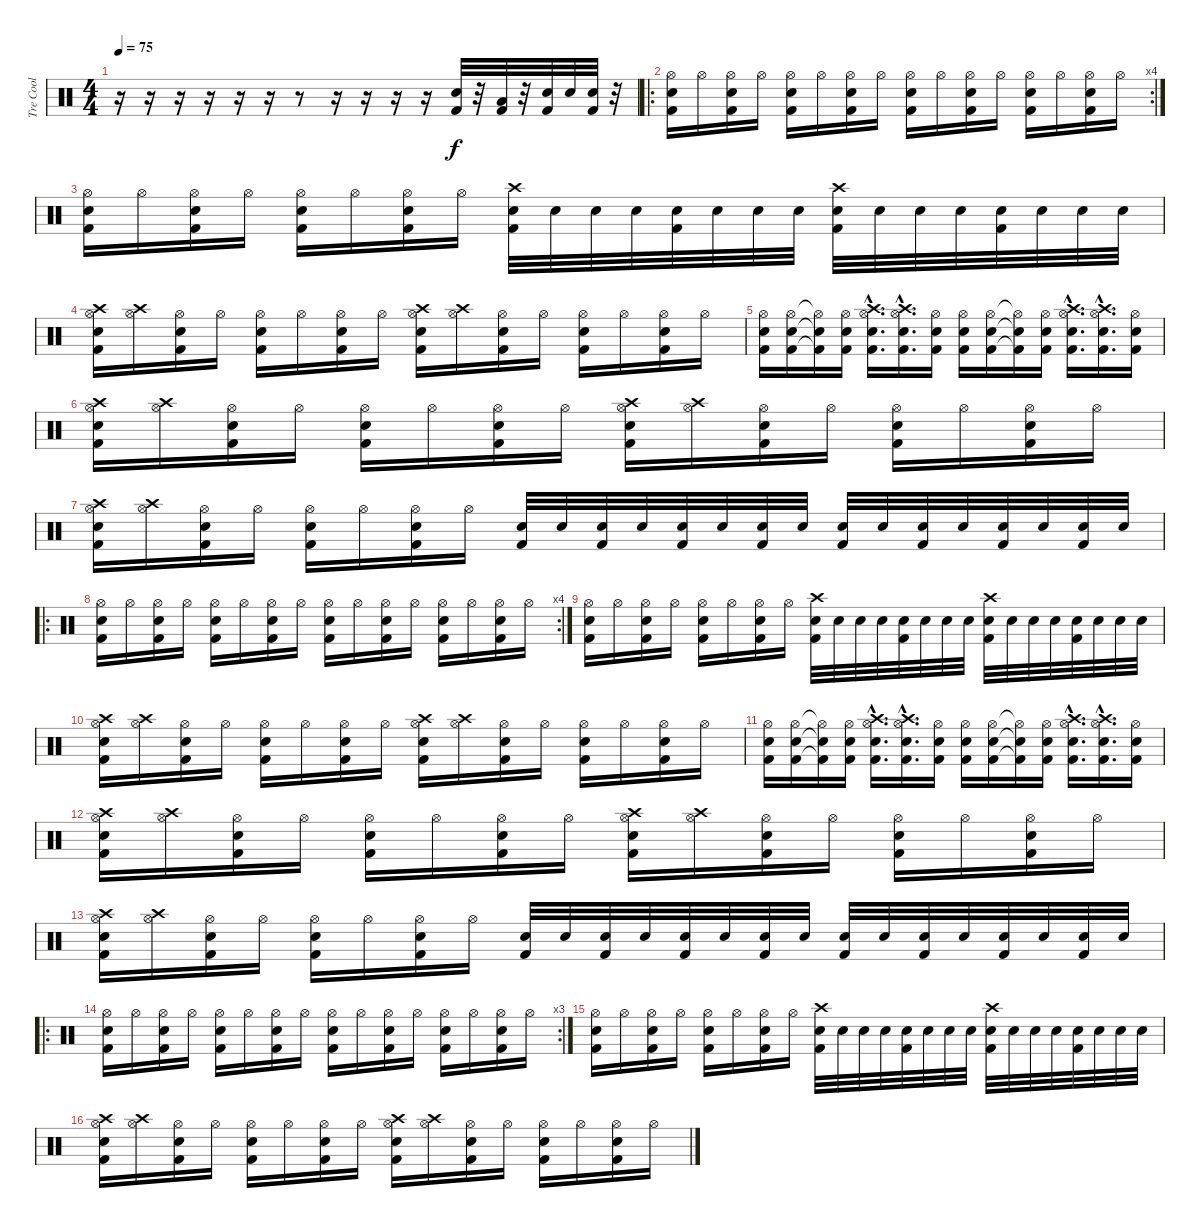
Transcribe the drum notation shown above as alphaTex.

\track ("Tre Cool" "Tre Cool") {instrument percussion}
\staff {score}
\articulation defaults
\ts (4 4)
\tempo 75
\clef neutral
\ks c
r.16{dy f} r.16 r.16 r.16 r.16 r.16 r.8 r.16 r.16 r.16 r.16 ("Snare (hit) 2" "Kick (hit) 2").32 r.32 ("Low Floor Tom (hit)" "Kick (hit) 2").32 r.32 ("Snare (hit) 2" "Kick (hit) 2").32 "Snare (hit) 2".32 ("Snare (hit) 2" "Kick (hit) 2").32 r.32 |
\ro
\rc 4
("Hi-Hat (open)" "Snare (hit) 2" "Kick (hit) 2").16 "Hi-Hat (open)".16 ("Hi-Hat (open)" "Snare (hit) 2" "Kick (hit) 2").16 "Hi-Hat (open)".16 ("Hi-Hat (open)" "Snare (hit) 2" "Kick (hit) 2").16 "Hi-Hat (open)".16 ("Hi-Hat (open)" "Snare (hit) 2" "Kick (hit) 2").16 "Hi-Hat (open)".16 ("Hi-Hat (open)" "Snare (hit) 2" "Kick (hit) 2").16 "Hi-Hat (open)".16 ("Hi-Hat (open)" "Snare (hit) 2" "Kick (hit) 2").16 "Hi-Hat (open)".16 ("Hi-Hat (open)" "Snare (hit) 2" "Kick (hit) 2").16 "Hi-Hat (open)".16 ("Hi-Hat (open)" "Snare (hit) 2" "Kick (hit) 2").16 "Hi-Hat (open)".16 |
("Hi-Hat (open)" "Snare (hit) 2" "Kick (hit) 2").16 "Hi-Hat (open)".16 ("Hi-Hat (open)" "Snare (hit) 2" "Kick (hit) 2").16 "Hi-Hat (open)".16 ("Hi-Hat (open)" "Snare (hit) 2" "Kick (hit) 2").16 "Hi-Hat (open)".16 ("Hi-Hat (open)" "Snare (hit) 2" "Kick (hit) 2").16 "Hi-Hat (open)".16 ("Crash high (hit)" "Snare (hit) 2" "Kick (hit) 2").32 "Snare (hit) 2".32 "Snare (hit) 2".32 "Snare (hit) 2".32 ("Snare (hit) 2" "Kick (hit) 2").32 "Snare (hit) 2".32 "Snare (hit) 2".32 "Snare (hit) 2".32 ("Crash high (hit)" "Snare (hit) 2" "Kick (hit) 2").32 "Snare (hit) 2".32 "Snare (hit) 2".32 "Snare (hit) 2".32 ("Snare (hit) 2" "Kick (hit) 2").32 "Snare (hit) 2".32 "Snare (hit) 2".32 "Snare (hit) 2".32 |
("Crash high (hit)" "Hi-Hat (open)" "Snare (hit) 2" "Kick (hit) 2").16 ("Crash high (hit)" "Hi-Hat (open)").16 ("Hi-Hat (open)" "Snare (hit) 2" "Kick (hit) 2").16 "Hi-Hat (open)".16 ("Hi-Hat (open)" "Snare (hit) 2" "Kick (hit) 2").16 "Hi-Hat (open)".16 ("Hi-Hat (open)" "Snare (hit) 2" "Kick (hit) 2").16 "Hi-Hat (open)".16 ("Crash high (hit)" "Hi-Hat (open)" "Snare (hit) 2" "Kick (hit) 2").16 ("Crash high (hit)" "Hi-Hat (open)").16 ("Hi-Hat (open)" "Snare (hit) 2" "Kick (hit) 2").16 "Hi-Hat (open)".16 ("Hi-Hat (open)" "Snare (hit) 2" "Kick (hit) 2").16 "Hi-Hat (open)".16 ("Hi-Hat (open)" "Snare (hit) 2" "Kick (hit) 2").16 "Hi-Hat (open)".16 |
("Hi-Hat (open)" "Snare (hit) 2" "Kick (hit) 2").16 ("Hi-Hat (open)" "Snare (hit) 2" "Kick (hit) 2").16 ("Hi-Hat (open)"{t} "Snare (hit) 2"{t} "Kick (hit) 2"{t}).16 ("Hi-Hat (open)" "Snare (hit) 2" "Kick (hit) 2").16 ("Crash high (hit)"{hac} "Hi-Hat (open)"{hac} "Snare (hit) 2"{hac} "Kick (hit) 2"{hac}).16{d} ("Crash high (hit)"{hac} "Hi-Hat (open)"{hac} "Snare (hit) 2"{hac} "Kick (hit) 2"{hac}).16{d} ("Hi-Hat (open)" "Snare (hit) 2" "Kick (hit) 2").16 ("Hi-Hat (open)" "Snare (hit) 2" "Kick (hit) 2").16 ("Hi-Hat (open)" "Snare (hit) 2" "Kick (hit) 2").16 ("Hi-Hat (open)"{t} "Snare (hit) 2"{t} "Kick (hit) 2"{t}).16 ("Hi-Hat (open)" "Snare (hit) 2" "Kick (hit) 2").16 ("Crash high (hit)"{hac} "Hi-Hat (open)"{hac} "Snare (hit) 2"{hac} "Kick (hit) 2"{hac}).16{d} ("Crash high (hit)"{hac} "Hi-Hat (open)"{hac} "Snare (hit) 2"{hac} "Kick (hit) 2"{hac}).16{d} ("Hi-Hat (open)" "Snare (hit) 2" "Kick (hit) 2").16 |
("Crash high (hit)" "Hi-Hat (open)" "Snare (hit) 2" "Kick (hit) 2").16 ("Crash high (hit)" "Hi-Hat (open)").16 ("Hi-Hat (open)" "Snare (hit) 2" "Kick (hit) 2").16 "Hi-Hat (open)".16 ("Hi-Hat (open)" "Snare (hit) 2" "Kick (hit) 2").16 "Hi-Hat (open)".16 ("Hi-Hat (open)" "Snare (hit) 2" "Kick (hit) 2").16 "Hi-Hat (open)".16 ("Crash high (hit)" "Hi-Hat (open)" "Snare (hit) 2" "Kick (hit) 2").16 ("Crash high (hit)" "Hi-Hat (open)").16 ("Hi-Hat (open)" "Snare (hit) 2" "Kick (hit) 2").16 "Hi-Hat (open)".16 ("Hi-Hat (open)" "Snare (hit) 2" "Kick (hit) 2").16 "Hi-Hat (open)".16 ("Hi-Hat (open)" "Snare (hit) 2" "Kick (hit) 2").16 "Hi-Hat (open)".16 |
("Crash high (hit)" "Hi-Hat (open)" "Snare (hit) 2" "Kick (hit) 2").16 ("Crash high (hit)" "Hi-Hat (open)").16 ("Hi-Hat (open)" "Snare (hit) 2" "Kick (hit) 2").16 "Hi-Hat (open)".16 ("Hi-Hat (open)" "Snare (hit) 2" "Kick (hit) 2").16 "Hi-Hat (open)".16 ("Hi-Hat (open)" "Snare (hit) 2" "Kick (hit) 2").16 "Hi-Hat (open)".16 ("Snare (hit) 2" "Kick (hit) 2").32 "Snare (hit) 2".32 ("Snare (hit) 2" "Kick (hit) 2").32 "Snare (hit) 2".32 ("Snare (hit) 2" "Kick (hit) 2").32 "Snare (hit) 2".32 ("Snare (hit) 2" "Kick (hit) 2").32 "Snare (hit) 2".32 ("Snare (hit) 2" "Kick (hit) 2").32 "Snare (hit) 2".32 ("Snare (hit) 2" "Kick (hit) 2").32 "Snare (hit) 2".32 ("Snare (hit) 2" "Kick (hit) 2").32 "Snare (hit) 2".32 ("Snare (hit) 2" "Kick (hit) 2").32 "Snare (hit) 2".32 |
\ro
\rc 4
("Hi-Hat (open)" "Snare (hit) 2" "Kick (hit) 2").16 "Hi-Hat (open)".16 ("Hi-Hat (open)" "Snare (hit) 2" "Kick (hit) 2").16 "Hi-Hat (open)".16 ("Hi-Hat (open)" "Snare (hit) 2" "Kick (hit) 2").16 "Hi-Hat (open)".16 ("Hi-Hat (open)" "Snare (hit) 2" "Kick (hit) 2").16 "Hi-Hat (open)".16 ("Hi-Hat (open)" "Snare (hit) 2" "Kick (hit) 2").16 "Hi-Hat (open)".16 ("Hi-Hat (open)" "Snare (hit) 2" "Kick (hit) 2").16 "Hi-Hat (open)".16 ("Hi-Hat (open)" "Snare (hit) 2" "Kick (hit) 2").16 "Hi-Hat (open)".16 ("Hi-Hat (open)" "Snare (hit) 2" "Kick (hit) 2").16 "Hi-Hat (open)".16 |
("Hi-Hat (open)" "Snare (hit) 2" "Kick (hit) 2").16 "Hi-Hat (open)".16 ("Hi-Hat (open)" "Snare (hit) 2" "Kick (hit) 2").16 "Hi-Hat (open)".16 ("Hi-Hat (open)" "Snare (hit) 2" "Kick (hit) 2").16 "Hi-Hat (open)".16 ("Hi-Hat (open)" "Snare (hit) 2" "Kick (hit) 2").16 "Hi-Hat (open)".16 ("Crash high (hit)" "Snare (hit) 2" "Kick (hit) 2").32 "Snare (hit) 2".32 "Snare (hit) 2".32 "Snare (hit) 2".32 ("Snare (hit) 2" "Kick (hit) 2").32 "Snare (hit) 2".32 "Snare (hit) 2".32 "Snare (hit) 2".32 ("Crash high (hit)" "Snare (hit) 2" "Kick (hit) 2").32 "Snare (hit) 2".32 "Snare (hit) 2".32 "Snare (hit) 2".32 ("Snare (hit) 2" "Kick (hit) 2").32 "Snare (hit) 2".32 "Snare (hit) 2".32 "Snare (hit) 2".32 |
("Crash high (hit)" "Hi-Hat (open)" "Snare (hit) 2" "Kick (hit) 2").16 ("Crash high (hit)" "Hi-Hat (open)").16 ("Hi-Hat (open)" "Snare (hit) 2" "Kick (hit) 2").16 "Hi-Hat (open)".16 ("Hi-Hat (open)" "Snare (hit) 2" "Kick (hit) 2").16 "Hi-Hat (open)".16 ("Hi-Hat (open)" "Snare (hit) 2" "Kick (hit) 2").16 "Hi-Hat (open)".16 ("Crash high (hit)" "Hi-Hat (open)" "Snare (hit) 2" "Kick (hit) 2").16 ("Crash high (hit)" "Hi-Hat (open)").16 ("Hi-Hat (open)" "Snare (hit) 2" "Kick (hit) 2").16 "Hi-Hat (open)".16 ("Hi-Hat (open)" "Snare (hit) 2" "Kick (hit) 2").16 "Hi-Hat (open)".16 ("Hi-Hat (open)" "Snare (hit) 2" "Kick (hit) 2").16 "Hi-Hat (open)".16 |
("Hi-Hat (open)" "Snare (hit) 2" "Kick (hit) 2").16 ("Hi-Hat (open)" "Snare (hit) 2" "Kick (hit) 2").16 ("Hi-Hat (open)"{t} "Snare (hit) 2"{t} "Kick (hit) 2"{t}).16 ("Hi-Hat (open)" "Snare (hit) 2" "Kick (hit) 2").16 ("Crash high (hit)"{hac} "Hi-Hat (open)"{hac} "Snare (hit) 2"{hac} "Kick (hit) 2"{hac}).16{d} ("Crash high (hit)"{hac} "Hi-Hat (open)"{hac} "Snare (hit) 2"{hac} "Kick (hit) 2"{hac}).16{d} ("Hi-Hat (open)" "Snare (hit) 2" "Kick (hit) 2").16 ("Hi-Hat (open)" "Snare (hit) 2" "Kick (hit) 2").16 ("Hi-Hat (open)" "Snare (hit) 2" "Kick (hit) 2").16 ("Hi-Hat (open)"{t} "Snare (hit) 2"{t} "Kick (hit) 2"{t}).16 ("Hi-Hat (open)" "Snare (hit) 2" "Kick (hit) 2").16 ("Crash high (hit)"{hac} "Hi-Hat (open)"{hac} "Snare (hit) 2"{hac} "Kick (hit) 2"{hac}).16{d} ("Crash high (hit)"{hac} "Hi-Hat (open)"{hac} "Snare (hit) 2"{hac} "Kick (hit) 2"{hac}).16{d} ("Hi-Hat (open)" "Snare (hit) 2" "Kick (hit) 2").16 |
("Crash high (hit)" "Hi-Hat (open)" "Snare (hit) 2" "Kick (hit) 2").16 ("Crash high (hit)" "Hi-Hat (open)").16 ("Hi-Hat (open)" "Snare (hit) 2" "Kick (hit) 2").16 "Hi-Hat (open)".16 ("Hi-Hat (open)" "Snare (hit) 2" "Kick (hit) 2").16 "Hi-Hat (open)".16 ("Hi-Hat (open)" "Snare (hit) 2" "Kick (hit) 2").16 "Hi-Hat (open)".16 ("Crash high (hit)" "Hi-Hat (open)" "Snare (hit) 2" "Kick (hit) 2").16 ("Crash high (hit)" "Hi-Hat (open)").16 ("Hi-Hat (open)" "Snare (hit) 2" "Kick (hit) 2").16 "Hi-Hat (open)".16 ("Hi-Hat (open)" "Snare (hit) 2" "Kick (hit) 2").16 "Hi-Hat (open)".16 ("Hi-Hat (open)" "Snare (hit) 2" "Kick (hit) 2").16 "Hi-Hat (open)".16 |
("Crash high (hit)" "Hi-Hat (open)" "Snare (hit) 2" "Kick (hit) 2").16 ("Crash high (hit)" "Hi-Hat (open)").16 ("Hi-Hat (open)" "Snare (hit) 2" "Kick (hit) 2").16 "Hi-Hat (open)".16 ("Hi-Hat (open)" "Snare (hit) 2" "Kick (hit) 2").16 "Hi-Hat (open)".16 ("Hi-Hat (open)" "Snare (hit) 2" "Kick (hit) 2").16 "Hi-Hat (open)".16 ("Snare (hit) 2" "Kick (hit) 2").32 "Snare (hit) 2".32 ("Snare (hit) 2" "Kick (hit) 2").32 "Snare (hit) 2".32 ("Snare (hit) 2" "Kick (hit) 2").32 "Snare (hit) 2".32 ("Snare (hit) 2" "Kick (hit) 2").32 "Snare (hit) 2".32 ("Snare (hit) 2" "Kick (hit) 2").32 "Snare (hit) 2".32 ("Snare (hit) 2" "Kick (hit) 2").32 "Snare (hit) 2".32 ("Snare (hit) 2" "Kick (hit) 2").32 "Snare (hit) 2".32 ("Snare (hit) 2" "Kick (hit) 2").32 "Snare (hit) 2".32 |
\ro
\rc 3
("Hi-Hat (open)" "Snare (hit) 2" "Kick (hit) 2").16 "Hi-Hat (open)".16 ("Hi-Hat (open)" "Snare (hit) 2" "Kick (hit) 2").16 "Hi-Hat (open)".16 ("Hi-Hat (open)" "Snare (hit) 2" "Kick (hit) 2").16 "Hi-Hat (open)".16 ("Hi-Hat (open)" "Snare (hit) 2" "Kick (hit) 2").16 "Hi-Hat (open)".16 ("Hi-Hat (open)" "Snare (hit) 2" "Kick (hit) 2").16 "Hi-Hat (open)".16 ("Hi-Hat (open)" "Snare (hit) 2" "Kick (hit) 2").16 "Hi-Hat (open)".16 ("Hi-Hat (open)" "Snare (hit) 2" "Kick (hit) 2").16 "Hi-Hat (open)".16 ("Hi-Hat (open)" "Snare (hit) 2" "Kick (hit) 2").16 "Hi-Hat (open)".16 |
("Hi-Hat (open)" "Snare (hit) 2" "Kick (hit) 2").16 "Hi-Hat (open)".16 ("Hi-Hat (open)" "Snare (hit) 2" "Kick (hit) 2").16 "Hi-Hat (open)".16 ("Hi-Hat (open)" "Snare (hit) 2" "Kick (hit) 2").16 "Hi-Hat (open)".16 ("Hi-Hat (open)" "Snare (hit) 2" "Kick (hit) 2").16 "Hi-Hat (open)".16 ("Crash high (hit)" "Snare (hit) 2" "Kick (hit) 2").32 "Snare (hit) 2".32 "Snare (hit) 2".32 "Snare (hit) 2".32 ("Snare (hit) 2" "Kick (hit) 2").32 "Snare (hit) 2".32 "Snare (hit) 2".32 "Snare (hit) 2".32 ("Crash high (hit)" "Snare (hit) 2" "Kick (hit) 2").32 "Snare (hit) 2".32 "Snare (hit) 2".32 "Snare (hit) 2".32 ("Snare (hit) 2" "Kick (hit) 2").32 "Snare (hit) 2".32 "Snare (hit) 2".32 "Snare (hit) 2".32 |
("Crash high (hit)" "Hi-Hat (open)" "Snare (hit) 2" "Kick (hit) 2").16 ("Crash high (hit)" "Hi-Hat (open)").16 ("Hi-Hat (open)" "Snare (hit) 2" "Kick (hit) 2").16 "Hi-Hat (open)".16 ("Hi-Hat (open)" "Snare (hit) 2" "Kick (hit) 2").16 "Hi-Hat (open)".16 ("Hi-Hat (open)" "Snare (hit) 2" "Kick (hit) 2").16 "Hi-Hat (open)".16 ("Crash high (hit)" "Hi-Hat (open)" "Snare (hit) 2" "Kick (hit) 2").16 ("Crash high (hit)" "Hi-Hat (open)").16 ("Hi-Hat (open)" "Snare (hit) 2" "Kick (hit) 2").16 "Hi-Hat (open)".16 ("Hi-Hat (open)" "Snare (hit) 2" "Kick (hit) 2").16 "Hi-Hat (open)".16 ("Hi-Hat (open)" "Snare (hit) 2" "Kick (hit) 2").16 "Hi-Hat (open)".16
